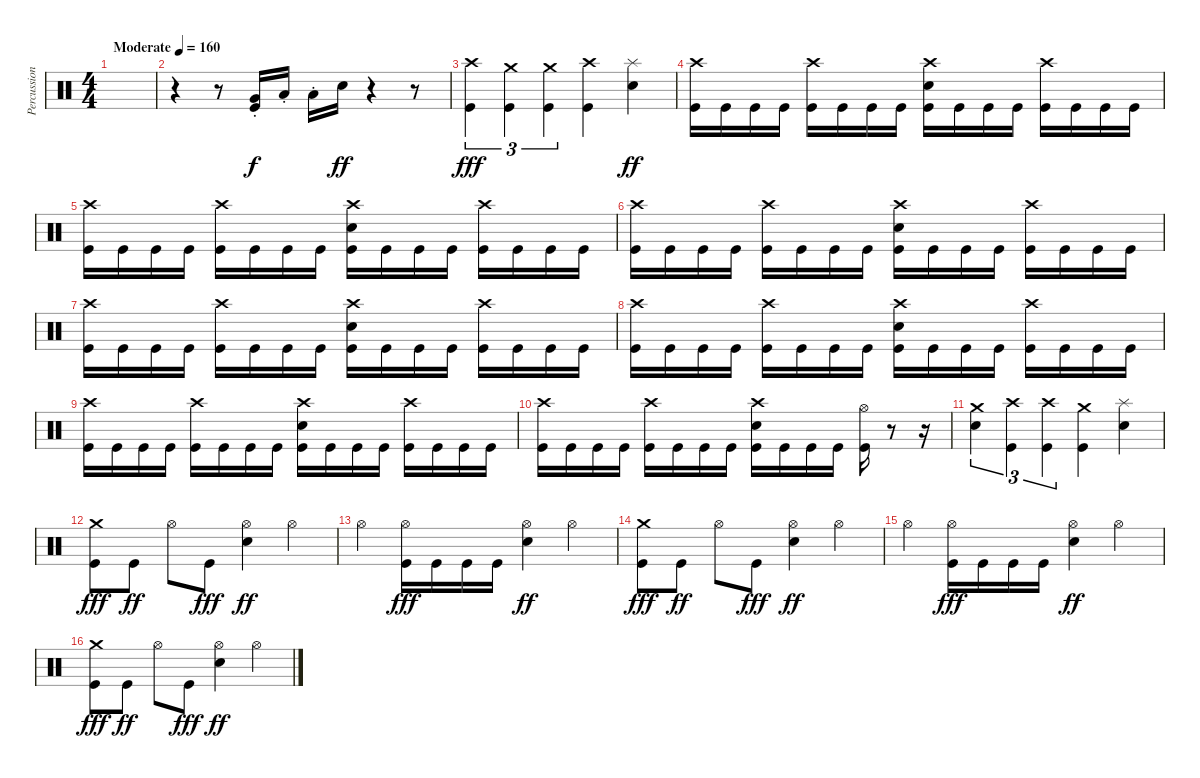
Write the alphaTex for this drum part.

\track ("Percussion" "Percussion") {instrument percussion}
\staff {score}
\articulation defaults
\ts (4 4)
\tempo (160 "Moderate")
\clef neutral
\ks c
|
r.4 r.8 ("Very Low Tom (hit)"{st} "Kick (hit)").16 "Low Tom (hit)"{st}.16 "Low Tom (hit)"{st}.16 "Electric Snare (hit)".16{dy ff} r.4 r.8 |
("Crash high (hit)" "Kick (hit)").4{tu (3 2) dy fff} ("Crash medium (hit)" "Kick (hit)").4{tu (3 2)} ("Crash medium (hit)" "Kick (hit)").4{tu (3 2)} ("Crash high (hit)" "Kick (hit)").4 ("Splash (hit)" "Electric Snare (hit)").4{dy ff} |
("Crash high (hit)" "Kick (hit)").16 "Kick (hit)".16 "Kick (hit)".16 "Kick (hit)".16 ("Crash high (hit)" "Kick (hit)").16 "Kick (hit)".16 "Kick (hit)".16 "Kick (hit)".16 ("Crash high (hit)" "Electric Snare (hit)" "Kick (hit)").16 "Kick (hit)".16 "Kick (hit)".16 "Kick (hit)".16 ("Crash high (hit)" "Kick (hit)").16 "Kick (hit)".16 "Kick (hit)".16 "Kick (hit)".16 |
("Crash high (hit)" "Kick (hit)").16 "Kick (hit)".16 "Kick (hit)".16 "Kick (hit)".16 ("Crash high (hit)" "Kick (hit)").16 "Kick (hit)".16 "Kick (hit)".16 "Kick (hit)".16 ("Crash high (hit)" "Electric Snare (hit)" "Kick (hit)").16 "Kick (hit)".16 "Kick (hit)".16 "Kick (hit)".16 ("Crash high (hit)" "Kick (hit)").16 "Kick (hit)".16 "Kick (hit)".16 "Kick (hit)".16 |
("Crash high (hit)" "Kick (hit)").16 "Kick (hit)".16 "Kick (hit)".16 "Kick (hit)".16 ("Crash high (hit)" "Kick (hit)").16 "Kick (hit)".16 "Kick (hit)".16 "Kick (hit)".16 ("Crash high (hit)" "Electric Snare (hit)" "Kick (hit)").16 "Kick (hit)".16 "Kick (hit)".16 "Kick (hit)".16 ("Crash high (hit)" "Kick (hit)").16 "Kick (hit)".16 "Kick (hit)".16 "Kick (hit)".16 |
("Crash high (hit)" "Kick (hit)").16 "Kick (hit)".16 "Kick (hit)".16 "Kick (hit)".16 ("Crash high (hit)" "Kick (hit)").16 "Kick (hit)".16 "Kick (hit)".16 "Kick (hit)".16 ("Crash high (hit)" "Electric Snare (hit)" "Kick (hit)").16 "Kick (hit)".16 "Kick (hit)".16 "Kick (hit)".16 ("Crash high (hit)" "Kick (hit)").16 "Kick (hit)".16 "Kick (hit)".16 "Kick (hit)".16 |
("Crash high (hit)" "Kick (hit)").16 "Kick (hit)".16 "Kick (hit)".16 "Kick (hit)".16 ("Crash high (hit)" "Kick (hit)").16 "Kick (hit)".16 "Kick (hit)".16 "Kick (hit)".16 ("Crash high (hit)" "Electric Snare (hit)" "Kick (hit)").16 "Kick (hit)".16 "Kick (hit)".16 "Kick (hit)".16 ("Crash high (hit)" "Kick (hit)").16 "Kick (hit)".16 "Kick (hit)".16 "Kick (hit)".16 |
("Crash high (hit)" "Kick (hit)").16 "Kick (hit)".16 "Kick (hit)".16 "Kick (hit)".16 ("Crash high (hit)" "Kick (hit)").16 "Kick (hit)".16 "Kick (hit)".16 "Kick (hit)".16 ("Crash high (hit)" "Electric Snare (hit)" "Kick (hit)").16 "Kick (hit)".16 "Kick (hit)".16 "Kick (hit)".16 ("Crash high (hit)" "Kick (hit)").16 "Kick (hit)".16 "Kick (hit)".16 "Kick (hit)".16 |
("Crash high (hit)" "Kick (hit)").16 "Kick (hit)".16 "Kick (hit)".16 "Kick (hit)".16 ("Crash high (hit)" "Kick (hit)").16 "Kick (hit)".16 "Kick (hit)".16 "Kick (hit)".16 ("Crash high (hit)" "Electric Snare (hit)" "Kick (hit)").16 "Kick (hit)".16 "Kick (hit)".16 "Kick (hit)".16 ("Hi-Hat (open)" "Kick (hit)").16 r.8 r.16 |
("Crash medium (hit)" "Electric Snare (hit)").4{tu (3 2)} ("Crash high (hit)" "Kick (hit)").4{tu (3 2)} ("Crash high (hit)" "Kick (hit)").4{tu (3 2)} ("Crash medium (hit)" "Kick (hit)").4 ("Splash (hit)" "Electric Snare (hit)").4 |
("Crash medium (hit)" "Kick (hit)").8{dy fff} "Kick (hit)".8{dy ff} "Hi-Hat (open)".8 "Kick (hit)".8{dy fff} ("Hi-Hat (open)" "Electric Snare (hit)").4{dy ff} "Hi-Hat (open)".4 |
"Hi-Hat (open)".4 ("Hi-Hat (open)" "Kick (hit)").16{dy fff} "Kick (hit)".16 "Kick (hit)".16 "Kick (hit)".16 ("Hi-Hat (open)" "Electric Snare (hit)").4{dy ff} "Hi-Hat (open)".4 |
("Crash medium (hit)" "Kick (hit)").8{dy fff} "Kick (hit)".8{dy ff} "Hi-Hat (open)".8 "Kick (hit)".8{dy fff} ("Hi-Hat (open)" "Electric Snare (hit)").4{dy ff} "Hi-Hat (open)".4 |
"Hi-Hat (open)".4 ("Hi-Hat (open)" "Kick (hit)").16{dy fff} "Kick (hit)".16 "Kick (hit)".16 "Kick (hit)".16 ("Hi-Hat (open)" "Electric Snare (hit)").4{dy ff} "Hi-Hat (open)".4 |
("Crash medium (hit)" "Kick (hit)").8{dy fff} "Kick (hit)".8{dy ff} "Hi-Hat (open)".8 "Kick (hit)".8{dy fff} ("Hi-Hat (open)" "Electric Snare (hit)").4{dy ff} "Hi-Hat (open)".4
